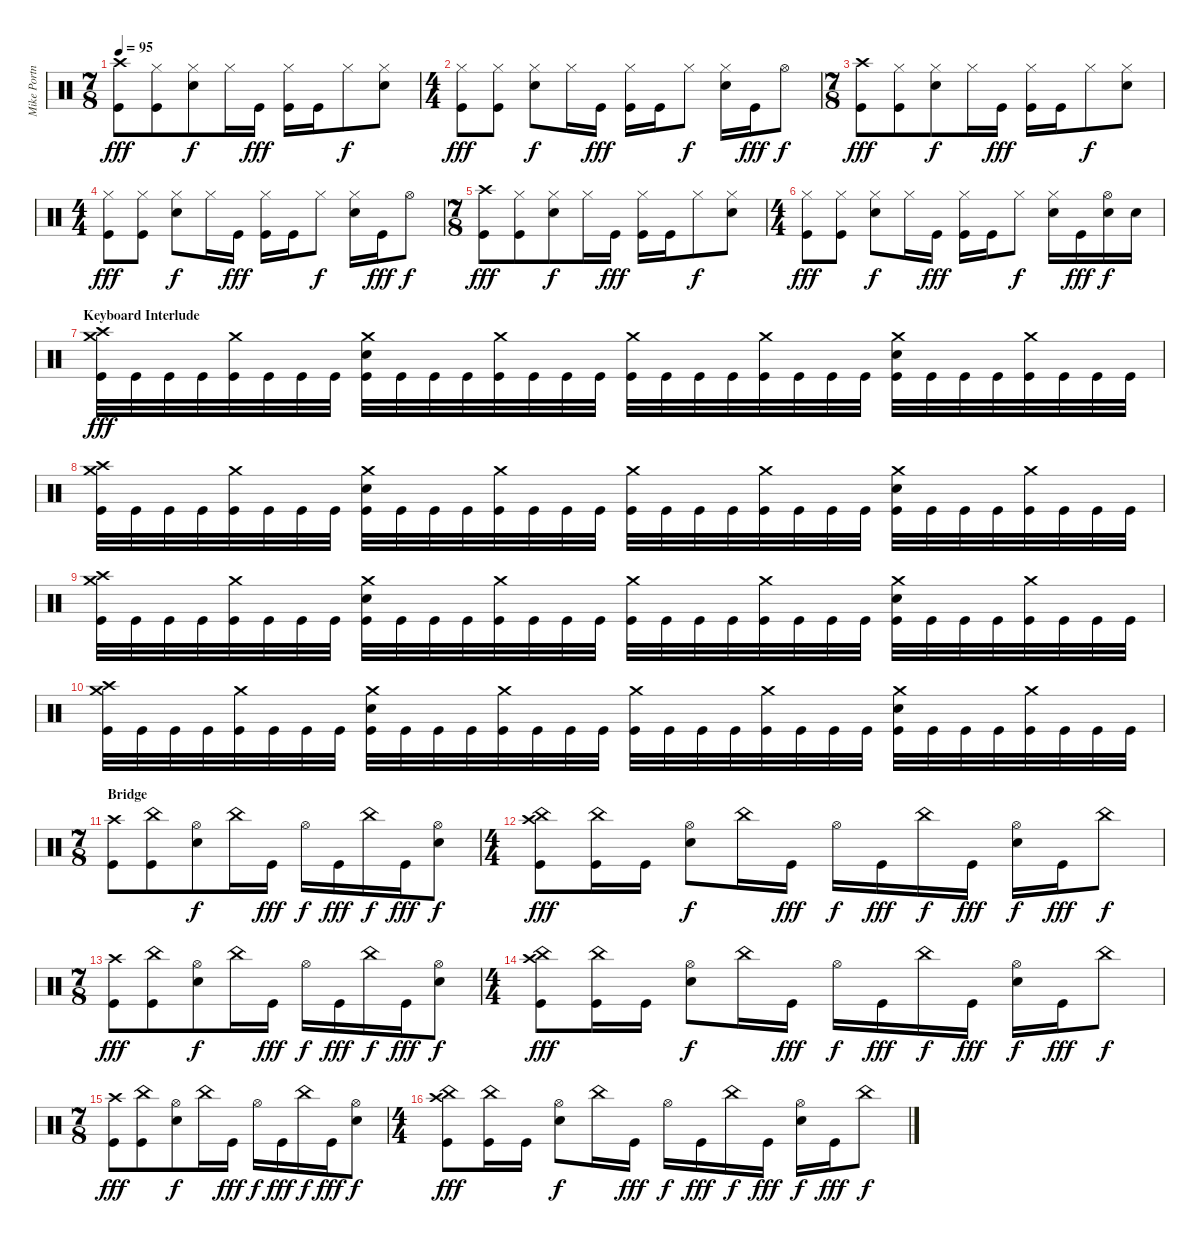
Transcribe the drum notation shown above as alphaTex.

\track ("Mike Portnoy" "Mike Portn") {instrument percussion}
\staff {score}
\articulation defaults
\ts (7 8)
\tempo 95
\clef neutral
\ks c
("Crash high (hit)" "Kick (hit)").8{dy fff} ("Hi-Hat (closed)" "Kick (hit)").8 ("Hi-Hat (closed)" "Electric Snare (hit)").8{dy f} "Hi-Hat (closed)".16 "Kick (hit)".16{dy fff} ("Hi-Hat (closed)" "Kick (hit)").16 "Kick (hit)".16 "Hi-Hat (closed)".8{dy f} ("Hi-Hat (closed)" "Electric Snare (hit)").8 |
\ts (4 4)
("Hi-Hat (closed)" "Kick (hit)").8{dy fff} ("Hi-Hat (closed)" "Kick (hit)").8 ("Hi-Hat (closed)" "Electric Snare (hit)").8{dy f} "Hi-Hat (closed)".16 "Kick (hit)".16{dy fff} ("Hi-Hat (closed)" "Kick (hit)").16 "Kick (hit)".16 "Hi-Hat (closed)".8{dy f} ("Hi-Hat (closed)" "Electric Snare (hit)").16 "Kick (hit)".16{dy fff} "Hi-Hat (open)".8{dy f} |
\ts (7 8)
("Crash high (hit)" "Kick (hit)").8{dy fff} ("Hi-Hat (closed)" "Kick (hit)").8 ("Hi-Hat (closed)" "Electric Snare (hit)").8{dy f} "Hi-Hat (closed)".16 "Kick (hit)".16{dy fff} ("Hi-Hat (closed)" "Kick (hit)").16 "Kick (hit)".16 "Hi-Hat (closed)".8{dy f} ("Hi-Hat (closed)" "Electric Snare (hit)").8 |
\ts (4 4)
("Hi-Hat (closed)" "Kick (hit)").8{dy fff} ("Hi-Hat (closed)" "Kick (hit)").8 ("Hi-Hat (closed)" "Electric Snare (hit)").8{dy f} "Hi-Hat (closed)".16 "Kick (hit)".16{dy fff} ("Hi-Hat (closed)" "Kick (hit)").16 "Kick (hit)".16 "Hi-Hat (closed)".8{dy f} ("Hi-Hat (closed)" "Electric Snare (hit)").16 "Kick (hit)".16{dy fff} "Hi-Hat (open)".8{dy f} |
\ts (7 8)
("Crash high (hit)" "Kick (hit)").8{dy fff} ("Hi-Hat (closed)" "Kick (hit)").8 ("Hi-Hat (closed)" "Electric Snare (hit)").8{dy f} "Hi-Hat (closed)".16 "Kick (hit)".16{dy fff} ("Hi-Hat (closed)" "Kick (hit)").16 "Kick (hit)".16 "Hi-Hat (closed)".8{dy f} ("Hi-Hat (closed)" "Electric Snare (hit)").8 |
\ts (4 4)
("Hi-Hat (closed)" "Kick (hit)").8{dy fff} ("Hi-Hat (closed)" "Kick (hit)").8 ("Hi-Hat (closed)" "Electric Snare (hit)").8{dy f} "Hi-Hat (closed)".16 "Kick (hit)".16{dy fff} ("Hi-Hat (closed)" "Kick (hit)").16 "Kick (hit)".16 "Hi-Hat (closed)".8{dy f} ("Hi-Hat (closed)" "Electric Snare (hit)").16 "Kick (hit)".16{dy fff} ("Hi-Hat (open)" "Electric Snare (hit)").16{dy f} "Electric Snare (hit)".16 |
\section ("" "Keyboard Interlude")
("Crash high (hit)" "Crash medium (hit)" "Kick (hit)").32{dy fff} "Kick (hit)".32 "Kick (hit)".32 "Kick (hit)".32 ("Crash medium (hit)" "Kick (hit)").32 "Kick (hit)".32 "Kick (hit)".32 "Kick (hit)".32 ("Crash medium (hit)" "Electric Snare (hit)" "Kick (hit)").32 "Kick (hit)".32 "Kick (hit)".32 "Kick (hit)".32 ("Crash medium (hit)" "Kick (hit)").32 "Kick (hit)".32 "Kick (hit)".32 "Kick (hit)".32 ("Crash medium (hit)" "Kick (hit)").32 "Kick (hit)".32 "Kick (hit)".32 "Kick (hit)".32 ("Crash medium (hit)" "Kick (hit)").32 "Kick (hit)".32 "Kick (hit)".32 "Kick (hit)".32 ("Crash medium (hit)" "Electric Snare (hit)" "Kick (hit)").32 "Kick (hit)".32 "Kick (hit)".32 "Kick (hit)".32 ("Crash medium (hit)" "Kick (hit)").32 "Kick (hit)".32 "Kick (hit)".32 "Kick (hit)".32 |
("Crash high (hit)" "Crash medium (hit)" "Kick (hit)").32 "Kick (hit)".32 "Kick (hit)".32 "Kick (hit)".32 ("Crash medium (hit)" "Kick (hit)").32 "Kick (hit)".32 "Kick (hit)".32 "Kick (hit)".32 ("Crash medium (hit)" "Electric Snare (hit)" "Kick (hit)").32 "Kick (hit)".32 "Kick (hit)".32 "Kick (hit)".32 ("Crash medium (hit)" "Kick (hit)").32 "Kick (hit)".32 "Kick (hit)".32 "Kick (hit)".32 ("Crash medium (hit)" "Kick (hit)").32 "Kick (hit)".32 "Kick (hit)".32 "Kick (hit)".32 ("Crash medium (hit)" "Kick (hit)").32 "Kick (hit)".32 "Kick (hit)".32 "Kick (hit)".32 ("Crash medium (hit)" "Electric Snare (hit)" "Kick (hit)").32 "Kick (hit)".32 "Kick (hit)".32 "Kick (hit)".32 ("Crash medium (hit)" "Kick (hit)").32 "Kick (hit)".32 "Kick (hit)".32 "Kick (hit)".32 |
("Crash high (hit)" "Crash medium (hit)" "Kick (hit)").32 "Kick (hit)".32 "Kick (hit)".32 "Kick (hit)".32 ("Crash medium (hit)" "Kick (hit)").32 "Kick (hit)".32 "Kick (hit)".32 "Kick (hit)".32 ("Crash medium (hit)" "Electric Snare (hit)" "Kick (hit)").32 "Kick (hit)".32 "Kick (hit)".32 "Kick (hit)".32 ("Crash medium (hit)" "Kick (hit)").32 "Kick (hit)".32 "Kick (hit)".32 "Kick (hit)".32 ("Crash medium (hit)" "Kick (hit)").32 "Kick (hit)".32 "Kick (hit)".32 "Kick (hit)".32 ("Crash medium (hit)" "Kick (hit)").32 "Kick (hit)".32 "Kick (hit)".32 "Kick (hit)".32 ("Crash medium (hit)" "Electric Snare (hit)" "Kick (hit)").32 "Kick (hit)".32 "Kick (hit)".32 "Kick (hit)".32 ("Crash medium (hit)" "Kick (hit)").32 "Kick (hit)".32 "Kick (hit)".32 "Kick (hit)".32 |
("Crash high (hit)" "Crash medium (hit)" "Kick (hit)").32 "Kick (hit)".32 "Kick (hit)".32 "Kick (hit)".32 ("Crash medium (hit)" "Kick (hit)").32 "Kick (hit)".32 "Kick (hit)".32 "Kick (hit)".32 ("Crash medium (hit)" "Electric Snare (hit)" "Kick (hit)").32 "Kick (hit)".32 "Kick (hit)".32 "Kick (hit)".32 ("Crash medium (hit)" "Kick (hit)").32 "Kick (hit)".32 "Kick (hit)".32 "Kick (hit)".32 ("Crash medium (hit)" "Kick (hit)").32 "Kick (hit)".32 "Kick (hit)".32 "Kick (hit)".32 ("Crash medium (hit)" "Kick (hit)").32 "Kick (hit)".32 "Kick (hit)".32 "Kick (hit)".32 ("Crash medium (hit)" "Electric Snare (hit)" "Kick (hit)").32 "Kick (hit)".32 "Kick (hit)".32 "Kick (hit)".32 ("Crash medium (hit)" "Kick (hit)").32 "Kick (hit)".32 "Kick (hit)".32 "Kick (hit)".32 |
\ts (7 8)
\section ("" "Bridge")
("Crash high (hit)" "Kick (hit)").8 ("China (hit)" "Kick (hit)").8 ("Hi-Hat (open)" "Electric Snare (hit)").8{dy f} "China (hit)".16 "Kick (hit)".16{dy fff} "Hi-Hat (open)".16{dy f} "Kick (hit)".16{dy fff} "China (hit)".16{dy f} "Kick (hit)".16{dy fff} ("Hi-Hat (open)" "Electric Snare (hit)").8{dy f} |
\ts (4 4)
("Crash high (hit)" "China (hit)" "Kick (hit)").8{dy fff} ("China (hit)" "Kick (hit)").16 "Kick (hit)".16 ("Hi-Hat (open)" "Electric Snare (hit)").8{dy f} "China (hit)".16 "Kick (hit)".16{dy fff} "Hi-Hat (open)".16{dy f} "Kick (hit)".16{dy fff} "China (hit)".16{dy f} "Kick (hit)".16{dy fff} ("Hi-Hat (open)" "Electric Snare (hit)").16{dy f} "Kick (hit)".16{dy fff} "China (hit)".8{dy f} |
\ts (7 8)
("Crash high (hit)" "Kick (hit)").8{dy fff} ("China (hit)" "Kick (hit)").8 ("Hi-Hat (open)" "Electric Snare (hit)").8{dy f} "China (hit)".16 "Kick (hit)".16{dy fff} "Hi-Hat (open)".16{dy f} "Kick (hit)".16{dy fff} "China (hit)".16{dy f} "Kick (hit)".16{dy fff} ("Hi-Hat (open)" "Electric Snare (hit)").8{dy f} |
\ts (4 4)
("Crash high (hit)" "China (hit)" "Kick (hit)").8{dy fff} ("China (hit)" "Kick (hit)").16 "Kick (hit)".16 ("Hi-Hat (open)" "Electric Snare (hit)").8{dy f} "China (hit)".16 "Kick (hit)".16{dy fff} "Hi-Hat (open)".16{dy f} "Kick (hit)".16{dy fff} "China (hit)".16{dy f} "Kick (hit)".16{dy fff} ("Hi-Hat (open)" "Electric Snare (hit)").16{dy f} "Kick (hit)".16{dy fff} "China (hit)".8{dy f} |
\ts (7 8)
("Crash high (hit)" "Kick (hit)").8{dy fff} ("China (hit)" "Kick (hit)").8 ("Hi-Hat (open)" "Electric Snare (hit)").8{dy f} "China (hit)".16 "Kick (hit)".16{dy fff} "Hi-Hat (open)".16{dy f} "Kick (hit)".16{dy fff} "China (hit)".16{dy f} "Kick (hit)".16{dy fff} ("Hi-Hat (open)" "Electric Snare (hit)").8{dy f} |
\ts (4 4)
("Crash high (hit)" "China (hit)" "Kick (hit)").8{dy fff} ("China (hit)" "Kick (hit)").16 "Kick (hit)".16 ("Hi-Hat (open)" "Electric Snare (hit)").8{dy f} "China (hit)".16 "Kick (hit)".16{dy fff} "Hi-Hat (open)".16{dy f} "Kick (hit)".16{dy fff} "China (hit)".16{dy f} "Kick (hit)".16{dy fff} ("Hi-Hat (open)" "Electric Snare (hit)").16{dy f} "Kick (hit)".16{dy fff} "China (hit)".8{dy f}
